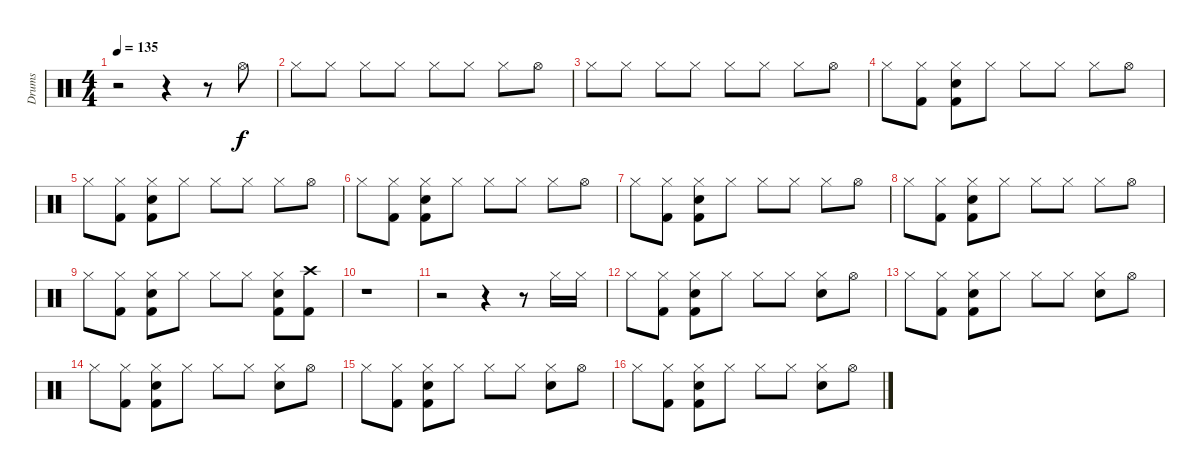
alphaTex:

\track ("Drums" "Drums") {instrument percussion}
\staff {score}
\articulation defaults
\ts (4 4)
\tempo 135
\clef neutral
\ks c
r.2{dy f} r.4 r.8 "Hi-Hat (open)".8 |
"Hi-Hat (closed)".8 "Hi-Hat (closed)".8 "Hi-Hat (closed)".8 "Hi-Hat (closed)".8 "Hi-Hat (closed)".8 "Hi-Hat (closed)".8 "Hi-Hat (closed)".8 "Hi-Hat (open)".8 |
"Hi-Hat (closed)".8 "Hi-Hat (closed)".8 "Hi-Hat (closed)".8 "Hi-Hat (closed)".8 "Hi-Hat (closed)".8 "Hi-Hat (closed)".8 "Hi-Hat (closed)".8 "Hi-Hat (open)".8 |
"Hi-Hat (closed)".8 ("Hi-Hat (closed)" "Kick (hit) 2").8 ("Hi-Hat (closed)" "Kick (hit) 2" "Snare (hit) 2").8 "Hi-Hat (closed)".8 "Hi-Hat (closed)".8 "Hi-Hat (closed)".8 "Hi-Hat (closed)".8 "Hi-Hat (open)".8 |
"Hi-Hat (closed)".8 ("Hi-Hat (closed)" "Kick (hit) 2").8 ("Hi-Hat (closed)" "Kick (hit) 2" "Snare (hit) 2").8 "Hi-Hat (closed)".8 "Hi-Hat (closed)".8 "Hi-Hat (closed)".8 "Hi-Hat (closed)".8 "Hi-Hat (open)".8 |
"Hi-Hat (closed)".8 ("Hi-Hat (closed)" "Kick (hit) 2").8 ("Hi-Hat (closed)" "Kick (hit) 2" "Snare (hit) 2").8 "Hi-Hat (closed)".8 "Hi-Hat (closed)".8 "Hi-Hat (closed)".8 "Hi-Hat (closed)".8 "Hi-Hat (open)".8 |
"Hi-Hat (closed)".8 ("Hi-Hat (closed)" "Kick (hit) 2").8 ("Hi-Hat (closed)" "Kick (hit) 2" "Snare (hit) 2").8 "Hi-Hat (closed)".8 "Hi-Hat (closed)".8 "Hi-Hat (closed)".8 "Hi-Hat (closed)".8 "Hi-Hat (open)".8 |
"Hi-Hat (closed)".8 ("Hi-Hat (closed)" "Kick (hit) 2").8 ("Hi-Hat (closed)" "Kick (hit) 2" "Snare (hit) 2").8 "Hi-Hat (closed)".8 "Hi-Hat (closed)".8 "Hi-Hat (closed)".8 "Hi-Hat (closed)".8 "Hi-Hat (open)".8 |
"Hi-Hat (closed)".8 ("Kick (hit) 2" "Hi-Hat (closed)").8 ("Kick (hit) 2" "Snare (hit) 2" "Hi-Hat (closed)").8 "Hi-Hat (closed)".8 "Hi-Hat (closed)".8 "Hi-Hat (closed)".8 ("Kick (hit) 2" "Hi-Hat (closed)" "Snare (hit) 2").8 ("Kick (hit) 2" "Crash high (hit)").8 |
r.1 |
r.2 r.4 r.8 "Hi-Hat (closed)".16 "Hi-Hat (closed)".16 |
"Hi-Hat (closed)".8 ("Hi-Hat (closed)" "Kick (hit) 2").8 ("Hi-Hat (closed)" "Kick (hit) 2" "Snare (hit) 2").8 "Hi-Hat (closed)".8 "Hi-Hat (closed)".8 "Hi-Hat (closed)".8 ("Hi-Hat (closed)" "Snare (hit) 2").8 "Hi-Hat (open)".8 |
"Hi-Hat (closed)".8 ("Hi-Hat (closed)" "Kick (hit) 2").8 ("Hi-Hat (closed)" "Kick (hit) 2" "Snare (hit) 2").8 "Hi-Hat (closed)".8 "Hi-Hat (closed)".8 "Hi-Hat (closed)".8 ("Hi-Hat (closed)" "Snare (hit) 2").8 "Hi-Hat (open)".8 |
"Hi-Hat (closed)".8 ("Hi-Hat (closed)" "Kick (hit) 2").8 ("Hi-Hat (closed)" "Kick (hit) 2" "Snare (hit) 2").8 "Hi-Hat (closed)".8 "Hi-Hat (closed)".8 "Hi-Hat (closed)".8 ("Hi-Hat (closed)" "Snare (hit) 2").8 "Hi-Hat (open)".8 |
"Hi-Hat (closed)".8 ("Hi-Hat (closed)" "Kick (hit) 2").8 ("Hi-Hat (closed)" "Kick (hit) 2" "Snare (hit) 2").8 "Hi-Hat (closed)".8 "Hi-Hat (closed)".8 "Hi-Hat (closed)".8 ("Hi-Hat (closed)" "Snare (hit) 2").8 "Hi-Hat (open)".8 |
"Hi-Hat (closed)".8 ("Hi-Hat (closed)" "Kick (hit) 2").8 ("Hi-Hat (closed)" "Kick (hit) 2" "Snare (hit) 2").8 "Hi-Hat (closed)".8 "Hi-Hat (closed)".8 "Hi-Hat (closed)".8 ("Hi-Hat (closed)" "Snare (hit) 2").8 "Hi-Hat (open)".8
